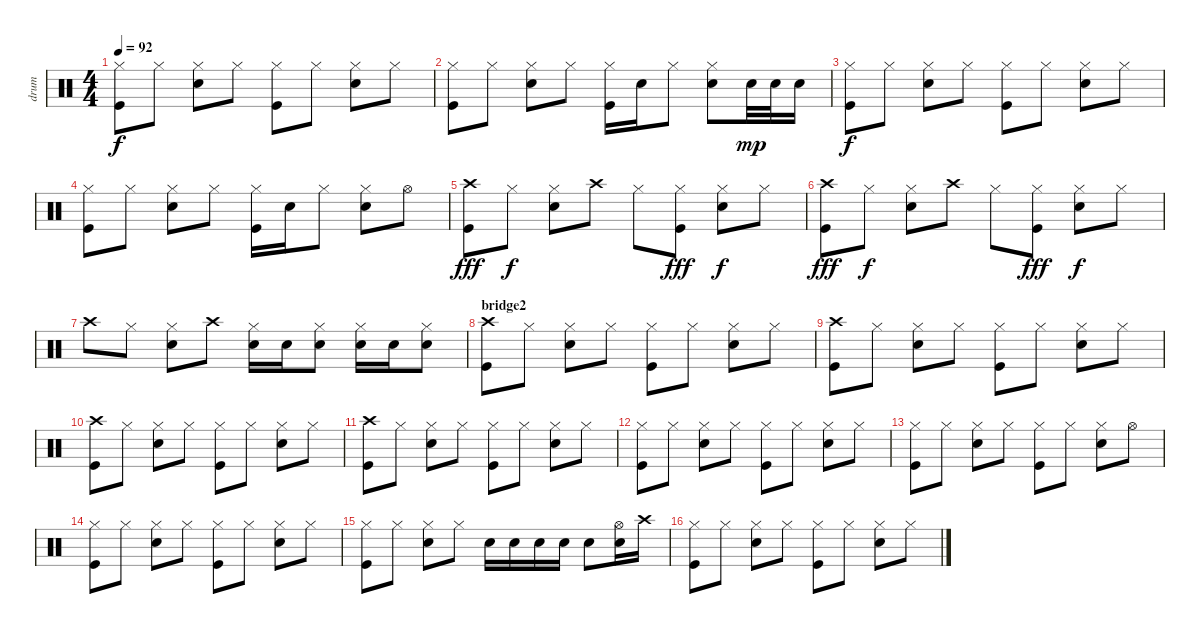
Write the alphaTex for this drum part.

\track ("drum" "drum") {instrument percussion}
\staff {score}
\articulation defaults
\ts (4 4)
\tempo 92
\clef neutral
\ks c
("Hi-Hat (closed)" "Kick (hit)").8{dy f} "Hi-Hat (closed)".8 ("Hi-Hat (closed)" "Snare (hit) 2").8 "Hi-Hat (closed)".8 ("Hi-Hat (closed)" "Kick (hit)").8 "Hi-Hat (closed)".8 ("Hi-Hat (closed)" "Snare (hit) 2").8 "Hi-Hat (closed)".8 |
("Hi-Hat (closed)" "Kick (hit)").8 "Hi-Hat (closed)".8 ("Hi-Hat (closed)" "Snare (hit) 2").8 "Hi-Hat (closed)".8 ("Hi-Hat (closed)" "Kick (hit)").16 "Snare (hit) 2".16 "Hi-Hat (closed)".8 ("Hi-Hat (closed)" "Snare (hit) 2").8 "Snare (hit) 2".32{dy mp} "Snare (hit) 2".32 "Snare (hit) 2".16 |
("Hi-Hat (closed)" "Kick (hit)").8{dy f} "Hi-Hat (closed)".8 ("Hi-Hat (closed)" "Snare (hit) 2").8 "Hi-Hat (closed)".8 ("Hi-Hat (closed)" "Kick (hit)").8 "Hi-Hat (closed)".8 ("Hi-Hat (closed)" "Snare (hit) 2").8 "Hi-Hat (closed)".8 |
("Hi-Hat (closed)" "Kick (hit)").8 "Hi-Hat (closed)".8 ("Hi-Hat (closed)" "Snare (hit) 2").8 "Hi-Hat (closed)".8 ("Hi-Hat (closed)" "Kick (hit)").16 "Snare (hit) 2".16 "Hi-Hat (closed)".8 ("Hi-Hat (closed)" "Snare (hit) 2").8 "Hi-Hat (open)".8 |
("Crash high (hit)" "Kick (hit)").8{dy fff} "Hi-Hat (closed)".8{dy f} ("Hi-Hat (closed)" "Snare (hit) 2").8 "Crash high (hit)".8 "Hi-Hat (closed)".8 ("Hi-Hat (closed)" "Kick (hit)").8{dy fff} ("Hi-Hat (closed)" "Snare (hit) 2").8{dy f} "Hi-Hat (closed)".8 |
("Crash high (hit)" "Kick (hit)").8{dy fff} "Hi-Hat (closed)".8{dy f} ("Hi-Hat (closed)" "Snare (hit) 2").8 "Crash high (hit)".8 "Hi-Hat (closed)".8 ("Hi-Hat (closed)" "Kick (hit)").8{dy fff} ("Hi-Hat (closed)" "Snare (hit) 2").8{dy f} "Hi-Hat (closed)".8 |
"Crash high (hit)".8 "Hi-Hat (closed)".8 ("Hi-Hat (closed)" "Snare (hit) 2").8 "Crash high (hit)".8 ("Hi-Hat (closed)" "Snare (hit) 2").16 "Snare (hit) 2".16 ("Hi-Hat (closed)" "Snare (hit) 2").8 ("Hi-Hat (closed)" "Snare (hit) 2").16 "Snare (hit) 2".16 ("Hi-Hat (closed)" "Snare (hit) 2").8 |
\section ("" "bridge2")
("Crash high (hit)" "Kick (hit)").8 "Hi-Hat (closed)".8 ("Hi-Hat (closed)" "Snare (hit) 2").8 "Hi-Hat (closed)".8 ("Hi-Hat (closed)" "Kick (hit)").8 "Hi-Hat (closed)".8 ("Hi-Hat (closed)" "Snare (hit) 2").8 "Hi-Hat (closed)".8 |
("Crash high (hit)" "Kick (hit)").8 "Hi-Hat (closed)".8 ("Hi-Hat (closed)" "Snare (hit) 2").8 "Hi-Hat (closed)".8 ("Hi-Hat (closed)" "Kick (hit)").8 "Hi-Hat (closed)".8 ("Hi-Hat (closed)" "Snare (hit) 2").8 "Hi-Hat (closed)".8 |
("Crash high (hit)" "Kick (hit)").8 "Hi-Hat (closed)".8 ("Hi-Hat (closed)" "Snare (hit) 2").8 "Hi-Hat (closed)".8 ("Hi-Hat (closed)" "Kick (hit)").8 "Hi-Hat (closed)".8 ("Hi-Hat (closed)" "Snare (hit) 2").8 "Hi-Hat (closed)".8 |
("Crash high (hit)" "Kick (hit)").8 "Hi-Hat (closed)".8 ("Hi-Hat (closed)" "Snare (hit) 2").8 "Hi-Hat (closed)".8 ("Hi-Hat (closed)" "Kick (hit)").8 "Hi-Hat (closed)".8 ("Hi-Hat (closed)" "Snare (hit) 2").8 "Hi-Hat (closed)".8 |
("Hi-Hat (closed)" "Kick (hit)").8 "Hi-Hat (closed)".8 ("Hi-Hat (closed)" "Snare (hit) 2").8 "Hi-Hat (closed)".8 ("Hi-Hat (closed)" "Kick (hit)").8 "Hi-Hat (closed)".8 ("Hi-Hat (closed)" "Snare (hit) 2").8 "Hi-Hat (closed)".8 |
("Hi-Hat (closed)" "Kick (hit)").8 "Hi-Hat (closed)".8 ("Hi-Hat (closed)" "Snare (hit) 2").8 "Hi-Hat (closed)".8 ("Hi-Hat (closed)" "Kick (hit)").8 "Hi-Hat (closed)".8 ("Hi-Hat (closed)" "Snare (hit) 2").8 "Hi-Hat (open)".8 |
("Hi-Hat (closed)" "Kick (hit)").8 "Hi-Hat (closed)".8 ("Hi-Hat (closed)" "Snare (hit) 2").8 "Hi-Hat (closed)".8 ("Hi-Hat (closed)" "Kick (hit)").8 "Hi-Hat (closed)".8 ("Hi-Hat (closed)" "Snare (hit) 2").8 "Hi-Hat (closed)".8 |
("Hi-Hat (closed)" "Kick (hit)").8 "Hi-Hat (closed)".8 ("Hi-Hat (closed)" "Snare (hit) 2").8 "Hi-Hat (closed)".8 "Snare (hit) 2".16 "Snare (hit) 2".16 "Snare (hit) 2".16 "Snare (hit) 2".16 "Snare (hit) 2".8 ("Hi-Hat (open)" "Snare (hit) 2").16 "Crash high (hit)".16 |
("Hi-Hat (closed)" "Kick (hit)").8 "Hi-Hat (closed)".8 ("Hi-Hat (closed)" "Snare (hit) 2").8 "Hi-Hat (closed)".8 ("Hi-Hat (closed)" "Kick (hit)").8 "Hi-Hat (closed)".8 ("Hi-Hat (closed)" "Snare (hit) 2").8 "Hi-Hat (closed)".8
